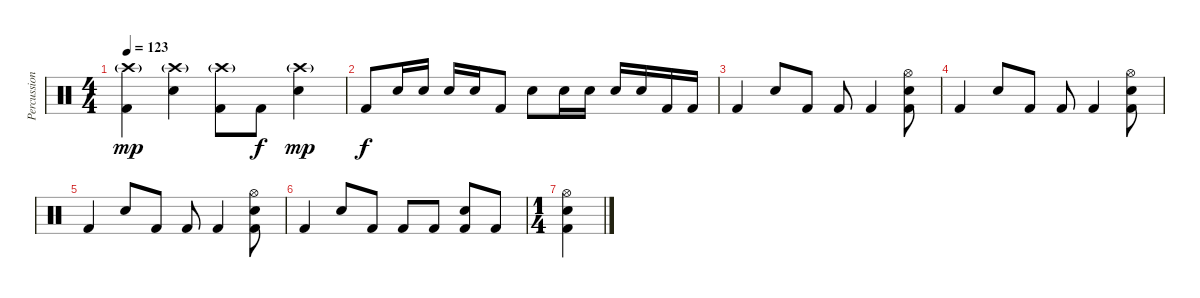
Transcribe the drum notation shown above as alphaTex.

\track ("Percussions" "Percussion") {instrument percussion}
\staff {score}
\articulation defaults
\ts (4 4)
\tempo 123
\clef neutral
\ks c
("Crash high (hit)"{g} "Kick (hit) 2").4{dy mp} ("Crash high (hit)"{g} "Snare (hit) 2").4 ("Crash high (hit)"{g} "Kick (hit) 2").8 "Kick (hit) 2".8{dy f} ("Crash high (hit)"{g} "Snare (hit) 2").4{dy mp} |
"Kick (hit) 2".8{dy f} "Electric Snare (hit)".16 "Electric Snare (hit)".16 "Electric Snare (hit)".16 "Electric Snare (hit)".16 "Kick (hit) 2".8 "Snare (hit) 2".8 "Electric Snare (hit)".16 "Electric Snare (hit)".16 "Electric Snare (hit)".16 "Electric Snare (hit)".16 "Kick (hit) 2".16 "Kick (hit) 2".16 |
"Kick (hit) 2".4 "Snare (hit) 2".8 "Kick (hit) 2".8 "Kick (hit) 2".8 "Kick (hit) 2".4 ("Hi-Hat (open)" "Snare (hit) 2" "Kick (hit) 2").8 |
"Kick (hit) 2".4 "Snare (hit) 2".8 "Kick (hit) 2".8 "Kick (hit) 2".8 "Kick (hit) 2".4 ("Hi-Hat (open)" "Snare (hit) 2" "Kick (hit) 2").8 |
"Kick (hit) 2".4 "Snare (hit) 2".8 "Kick (hit) 2".8 "Kick (hit) 2".8 "Kick (hit) 2".4 ("Hi-Hat (open)" "Snare (hit) 2" "Kick (hit) 2").8 |
"Kick (hit) 2".4 "Snare (hit) 2".8 "Kick (hit) 2".8 "Kick (hit) 2".8 "Kick (hit) 2".8 ("Snare (hit) 2" "Kick (hit) 2").8 "Kick (hit) 2".8 |
\ts (1 4)
("Hi-Hat (open)" "Snare (hit) 2" "Kick (hit) 2").4
